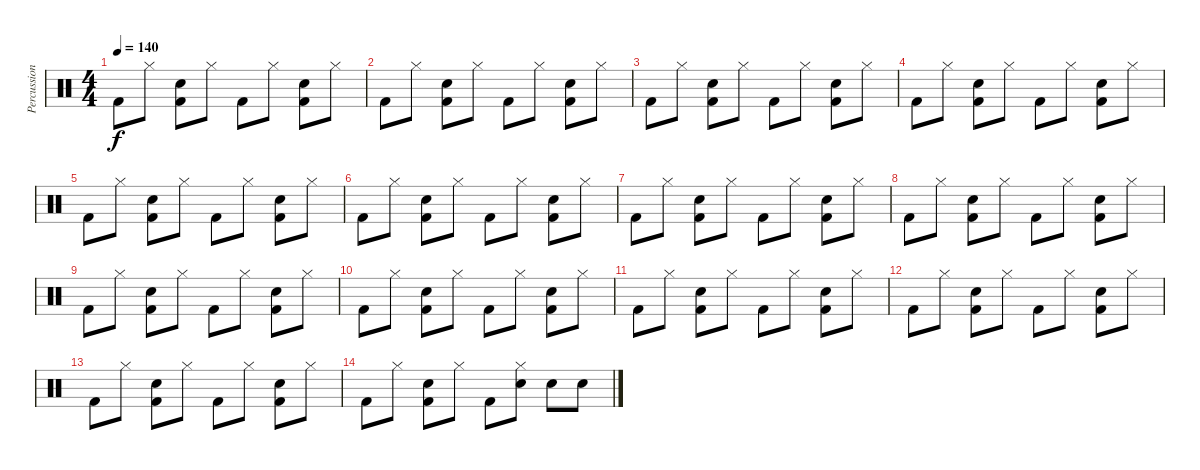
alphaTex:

\track ("Percussion" "Percussion") {instrument percussion}
\staff {score}
\articulation defaults
\ts (4 4)
\tempo 140
\clef neutral
\ks c "Kick (hit) 2".8{dy f} "Hi-Hat (closed)".8
("Electric Snare (hit)" "Kick (hit) 2").8 "Hi-Hat (closed)".8 "Kick (hit) 2".8 "Hi-Hat (closed)".8 ("Electric Snare (hit)" "Kick (hit) 2").8 "Hi-Hat (closed)".8 |
"Kick (hit) 2".8 "Hi-Hat (closed)".8 ("Electric Snare (hit)" "Kick (hit) 2").8 "Hi-Hat (closed)".8 "Kick (hit) 2".8 "Hi-Hat (closed)".8 ("Electric Snare (hit)" "Kick (hit) 2").8 "Hi-Hat (closed)".8 |
"Kick (hit) 2".8 "Hi-Hat (closed)".8 ("Electric Snare (hit)" "Kick (hit) 2").8 "Hi-Hat (closed)".8 "Kick (hit) 2".8 "Hi-Hat (closed)".8 ("Electric Snare (hit)" "Kick (hit) 2").8 "Hi-Hat (closed)".8 |
"Kick (hit) 2".8 "Hi-Hat (closed)".8 ("Electric Snare (hit)" "Kick (hit) 2").8 "Hi-Hat (closed)".8 "Kick (hit) 2".8 "Hi-Hat (closed)".8 ("Electric Snare (hit)" "Kick (hit) 2").8 "Hi-Hat (closed)".8 |
"Kick (hit) 2".8 "Hi-Hat (closed)".8 ("Electric Snare (hit)" "Kick (hit) 2").8 "Hi-Hat (closed)".8 "Kick (hit) 2".8 "Hi-Hat (closed)".8 ("Electric Snare (hit)" "Kick (hit) 2").8 "Hi-Hat (closed)".8 |
"Kick (hit) 2".8 "Hi-Hat (closed)".8 ("Electric Snare (hit)" "Kick (hit) 2").8 "Hi-Hat (closed)".8 "Kick (hit) 2".8 "Hi-Hat (closed)".8 ("Electric Snare (hit)" "Kick (hit) 2").8 "Hi-Hat (closed)".8 |
"Kick (hit) 2".8 "Hi-Hat (closed)".8 ("Electric Snare (hit)" "Kick (hit) 2").8 "Hi-Hat (closed)".8 "Kick (hit) 2".8 "Hi-Hat (closed)".8 ("Electric Snare (hit)" "Kick (hit) 2").8 "Hi-Hat (closed)".8 |
"Kick (hit) 2".8 "Hi-Hat (closed)".8 ("Electric Snare (hit)" "Kick (hit) 2").8 "Hi-Hat (closed)".8 "Kick (hit) 2".8 "Hi-Hat (closed)".8 ("Electric Snare (hit)" "Kick (hit) 2").8 "Hi-Hat (closed)".8 |
"Kick (hit) 2".8 "Hi-Hat (closed)".8 ("Electric Snare (hit)" "Kick (hit) 2").8 "Hi-Hat (closed)".8 "Kick (hit) 2".8 "Hi-Hat (closed)".8 ("Electric Snare (hit)" "Kick (hit) 2").8 "Hi-Hat (closed)".8 |
"Kick (hit) 2".8 "Hi-Hat (closed)".8 ("Electric Snare (hit)" "Kick (hit) 2").8 "Hi-Hat (closed)".8 "Kick (hit) 2".8 "Hi-Hat (closed)".8 ("Electric Snare (hit)" "Kick (hit) 2").8 "Hi-Hat (closed)".8 |
"Kick (hit) 2".8 "Hi-Hat (closed)".8 ("Electric Snare (hit)" "Kick (hit) 2").8 "Hi-Hat (closed)".8 "Kick (hit) 2".8 "Hi-Hat (closed)".8 ("Electric Snare (hit)" "Kick (hit) 2").8 "Hi-Hat (closed)".8 |
"Kick (hit) 2".8 "Hi-Hat (closed)".8 ("Electric Snare (hit)" "Kick (hit) 2").8 "Hi-Hat (closed)".8 "Kick (hit) 2".8 "Hi-Hat (closed)".8 ("Electric Snare (hit)" "Kick (hit) 2").8 "Hi-Hat (closed)".8 |
"Kick (hit) 2".8 "Hi-Hat (closed)".8 ("Electric Snare (hit)" "Kick (hit) 2").8 "Hi-Hat (closed)".8 "Kick (hit) 2".8 "Hi-Hat (closed)".8 ("Electric Snare (hit)" "Kick (hit) 2").8 "Hi-Hat (closed)".8 |
"Kick (hit) 2".8 "Hi-Hat (closed)".8 ("Electric Snare (hit)" "Kick (hit) 2").8 "Hi-Hat (closed)".8 "Kick (hit) 2".8 ("Hi-Hat (closed)" "Electric Snare (hit)").8 "Electric Snare (hit)".8 "Electric Snare (hit)".8
